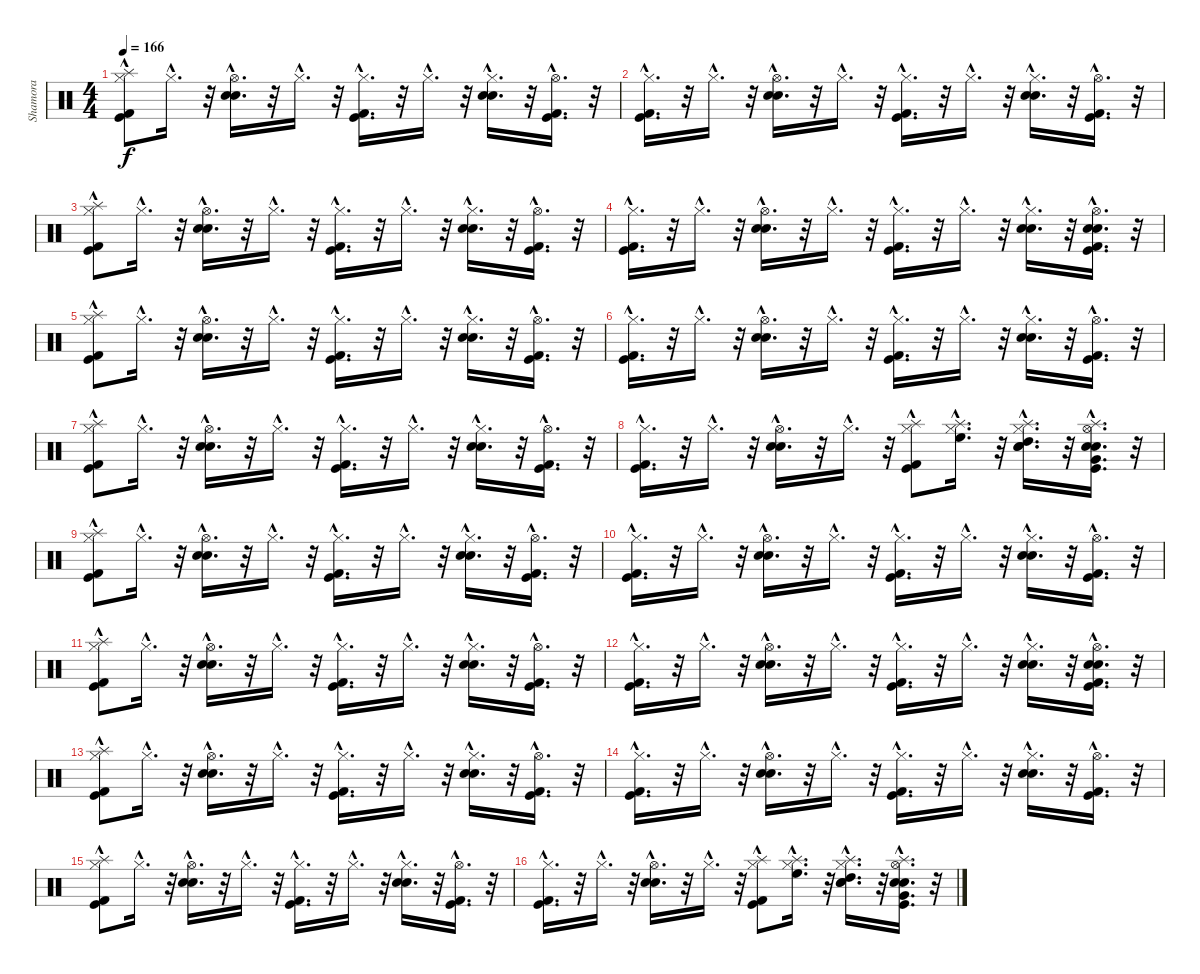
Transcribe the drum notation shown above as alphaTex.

\track ("Shamora" "Shamora") {instrument percussion}
\staff {score}
\articulation defaults
\ts (4 4)
\tempo 166
\clef neutral
\ks c
("Hi-Hat (closed)"{hac} "Kick (hit) 2"{hac} "Kick (hit)"{hac} "Splash (hit)").8{dy f} "Hi-Hat (closed)"{hac}.16{d} r.32 ("Hi-Hat (open)"{hac} "Snare (hit) 2"{hac} "Electric Snare (hit)"{hac}).16{d} r.32 "Hi-Hat (closed)"{hac}.16{d} r.32 ("Hi-Hat (closed)"{hac} "Kick (hit)"{hac} "Kick (hit) 2"{hac}).16{d} r.32 "Hi-Hat (closed)"{hac}.16{d} r.32 ("Hi-Hat (closed)"{hac} "Snare (hit) 2"{hac} "Electric Snare (hit)"{hac}).16{d} r.32 ("Hi-Hat (open)"{hac} "Kick (hit)"{hac} "Kick (hit) 2"{hac}).16{d} r.32 |
("Hi-Hat (closed)"{hac} "Kick (hit) 2"{hac} "Kick (hit)"{hac}).16{d} r.32 "Hi-Hat (closed)"{hac}.16{d} r.32 ("Hi-Hat (open)"{hac} "Snare (hit) 2"{hac} "Electric Snare (hit)"{hac}).16{d} r.32 "Hi-Hat (closed)"{hac}.16{d} r.32 ("Hi-Hat (closed)"{hac} "Kick (hit)"{hac} "Kick (hit) 2"{hac}).16{d} r.32 "Hi-Hat (closed)"{hac}.16{d} r.32 ("Hi-Hat (closed)"{hac} "Snare (hit) 2"{hac} "Electric Snare (hit)"{hac}).16{d} r.32 ("Hi-Hat (open)"{hac} "Kick (hit)"{hac} "Kick (hit) 2"{hac}).16{d} r.32 |
("Splash (hit)" "Hi-Hat (closed)"{hac} "Kick (hit) 2"{hac} "Kick (hit)"{hac}).8 "Hi-Hat (closed)"{hac}.16{d} r.32 ("Hi-Hat (open)"{hac} "Snare (hit) 2"{hac} "Electric Snare (hit)"{hac}).16{d} r.32 "Hi-Hat (closed)"{hac}.16{d} r.32 ("Hi-Hat (closed)"{hac} "Kick (hit)"{hac} "Kick (hit) 2"{hac}).16{d} r.32 "Hi-Hat (closed)"{hac}.16{d} r.32 ("Hi-Hat (closed)"{hac} "Snare (hit) 2"{hac} "Electric Snare (hit)"{hac}).16{d} r.32 ("Hi-Hat (open)"{hac} "Kick (hit)"{hac} "Kick (hit) 2"{hac}).16{d} r.32 |
("Hi-Hat (closed)"{hac} "Kick (hit) 2"{hac} "Kick (hit)"{hac}).16{d} r.32 "Hi-Hat (closed)"{hac}.16{d} r.32 ("Hi-Hat (open)"{hac} "Snare (hit) 2"{hac} "Electric Snare (hit)"{hac}).16{d} r.32 "Hi-Hat (closed)"{hac}.16{d} r.32 ("Hi-Hat (closed)"{hac} "Kick (hit)"{hac} "Kick (hit) 2"{hac}).16{d} r.32 "Hi-Hat (closed)"{hac}.16{d} r.32 ("Hi-Hat (closed)"{hac} "Snare (hit) 2"{hac} "Electric Snare (hit)"{hac}).16{d} r.32 ("Snare (hit) 2"{hac} "Electric Snare (hit)"{hac} "Hi-Hat (open)"{hac} "Kick (hit)"{hac} "Kick (hit) 2"{hac}).16{d} r.32 |
("Hi-Hat (closed)"{hac} "Kick (hit) 2"{hac} "Kick (hit)"{hac} "Splash (hit)").8 "Hi-Hat (closed)"{hac}.16{d} r.32 ("Hi-Hat (open)"{hac} "Snare (hit) 2"{hac} "Electric Snare (hit)"{hac}).16{d} r.32 "Hi-Hat (closed)"{hac}.16{d} r.32 ("Hi-Hat (closed)"{hac} "Kick (hit)"{hac} "Kick (hit) 2"{hac}).16{d} r.32 "Hi-Hat (closed)"{hac}.16{d} r.32 ("Hi-Hat (closed)"{hac} "Snare (hit) 2"{hac} "Electric Snare (hit)"{hac}).16{d} r.32 ("Hi-Hat (open)"{hac} "Kick (hit)"{hac} "Kick (hit) 2"{hac}).16{d} r.32 |
("Hi-Hat (closed)"{hac} "Kick (hit) 2"{hac} "Kick (hit)"{hac}).16{d} r.32 "Hi-Hat (closed)"{hac}.16{d} r.32 ("Hi-Hat (open)"{hac} "Snare (hit) 2"{hac} "Electric Snare (hit)"{hac}).16{d} r.32 "Hi-Hat (closed)"{hac}.16{d} r.32 ("Hi-Hat (closed)"{hac} "Kick (hit)"{hac} "Kick (hit) 2"{hac}).16{d} r.32 "Hi-Hat (closed)"{hac}.16{d} r.32 ("Hi-Hat (closed)"{hac} "Snare (hit) 2"{hac} "Electric Snare (hit)"{hac}).16{d} r.32 ("Hi-Hat (open)"{hac} "Kick (hit)"{hac} "Kick (hit) 2"{hac}).16{d} r.32 |
("Splash (hit)" "Hi-Hat (closed)"{hac} "Kick (hit) 2"{hac} "Kick (hit)"{hac}).8 "Hi-Hat (closed)"{hac}.16{d} r.32 ("Hi-Hat (open)"{hac} "Snare (hit) 2"{hac} "Electric Snare (hit)"{hac}).16{d} r.32 "Hi-Hat (closed)"{hac}.16{d} r.32 ("Hi-Hat (closed)"{hac} "Kick (hit)"{hac} "Kick (hit) 2"{hac}).16{d} r.32 "Hi-Hat (closed)"{hac}.16{d} r.32 ("Hi-Hat (closed)"{hac} "Snare (hit) 2"{hac} "Electric Snare (hit)"{hac}).16{d} r.32 ("Hi-Hat (open)"{hac} "Kick (hit)"{hac} "Kick (hit) 2"{hac}).16{d} r.32 |
("Hi-Hat (closed)"{hac} "Kick (hit) 2"{hac} "Kick (hit)"{hac}).16{d} r.32 "Hi-Hat (closed)"{hac}.16{d} r.32 ("Hi-Hat (open)"{hac} "Snare (hit) 2"{hac} "Electric Snare (hit)"{hac}).16{d} r.32 "Hi-Hat (closed)"{hac}.16{d} r.32 ("Splash (hit)"{hac} "Hi-Hat (closed)"{hac} "Kick (hit)"{hac} "Kick (hit) 2"{hac}).8 ("High Floor Tom (hit)"{hac} "Splash (hit)"{hac} "Hi-Hat (closed)"{hac}).16{d} r.32 ("High Tom (hit)"{hac} "Splash (hit)"{hac} "Hi-Hat (closed)"{hac} "Snare (hit) 2"{hac} "Electric Snare (hit)"{hac}).16{d} r.32 ("Very Low Tom (hit)"{hac} "Splash (hit)"{hac} "Snare (hit) 2"{hac} "Electric Snare (hit)"{hac} "Hi-Hat (open)"{hac} "Kick (hit)"{hac}).16{d} r.32 |
("Hi-Hat (closed)"{hac} "Kick (hit) 2"{hac} "Kick (hit)"{hac} "Splash (hit)").8 "Hi-Hat (closed)"{hac}.16{d} r.32 ("Hi-Hat (open)"{hac} "Snare (hit) 2"{hac} "Electric Snare (hit)"{hac}).16{d} r.32 "Hi-Hat (closed)"{hac}.16{d} r.32 ("Hi-Hat (closed)"{hac} "Kick (hit)"{hac} "Kick (hit) 2"{hac}).16{d} r.32 "Hi-Hat (closed)"{hac}.16{d} r.32 ("Hi-Hat (closed)"{hac} "Snare (hit) 2"{hac} "Electric Snare (hit)"{hac}).16{d} r.32 ("Hi-Hat (open)"{hac} "Kick (hit)"{hac} "Kick (hit) 2"{hac}).16{d} r.32 |
("Hi-Hat (closed)"{hac} "Kick (hit) 2"{hac} "Kick (hit)"{hac}).16{d} r.32 "Hi-Hat (closed)"{hac}.16{d} r.32 ("Hi-Hat (open)"{hac} "Snare (hit) 2"{hac} "Electric Snare (hit)"{hac}).16{d} r.32 "Hi-Hat (closed)"{hac}.16{d} r.32 ("Hi-Hat (closed)"{hac} "Kick (hit)"{hac} "Kick (hit) 2"{hac}).16{d} r.32 "Hi-Hat (closed)"{hac}.16{d} r.32 ("Hi-Hat (closed)"{hac} "Snare (hit) 2"{hac} "Electric Snare (hit)"{hac}).16{d} r.32 ("Hi-Hat (open)"{hac} "Kick (hit)"{hac} "Kick (hit) 2"{hac}).16{d} r.32 |
("Splash (hit)" "Hi-Hat (closed)"{hac} "Kick (hit) 2"{hac} "Kick (hit)"{hac}).8 "Hi-Hat (closed)"{hac}.16{d} r.32 ("Hi-Hat (open)"{hac} "Snare (hit) 2"{hac} "Electric Snare (hit)"{hac}).16{d} r.32 "Hi-Hat (closed)"{hac}.16{d} r.32 ("Hi-Hat (closed)"{hac} "Kick (hit)"{hac} "Kick (hit) 2"{hac}).16{d} r.32 "Hi-Hat (closed)"{hac}.16{d} r.32 ("Hi-Hat (closed)"{hac} "Snare (hit) 2"{hac} "Electric Snare (hit)"{hac}).16{d} r.32 ("Hi-Hat (open)"{hac} "Kick (hit)"{hac} "Kick (hit) 2"{hac}).16{d} r.32 |
("Hi-Hat (closed)"{hac} "Kick (hit) 2"{hac} "Kick (hit)"{hac}).16{d} r.32 "Hi-Hat (closed)"{hac}.16{d} r.32 ("Hi-Hat (open)"{hac} "Snare (hit) 2"{hac} "Electric Snare (hit)"{hac}).16{d} r.32 "Hi-Hat (closed)"{hac}.16{d} r.32 ("Hi-Hat (closed)"{hac} "Kick (hit)"{hac} "Kick (hit) 2"{hac}).16{d} r.32 "Hi-Hat (closed)"{hac}.16{d} r.32 ("Hi-Hat (closed)"{hac} "Snare (hit) 2"{hac} "Electric Snare (hit)"{hac}).16{d} r.32 ("Snare (hit) 2"{hac} "Electric Snare (hit)"{hac} "Hi-Hat (open)"{hac} "Kick (hit)"{hac} "Kick (hit) 2"{hac}).16{d} r.32 |
("Hi-Hat (closed)"{hac} "Kick (hit) 2"{hac} "Kick (hit)"{hac} "Splash (hit)").8 "Hi-Hat (closed)"{hac}.16{d} r.32 ("Hi-Hat (open)"{hac} "Snare (hit) 2"{hac} "Electric Snare (hit)"{hac}).16{d} r.32 "Hi-Hat (closed)"{hac}.16{d} r.32 ("Hi-Hat (closed)"{hac} "Kick (hit)"{hac} "Kick (hit) 2"{hac}).16{d} r.32 "Hi-Hat (closed)"{hac}.16{d} r.32 ("Hi-Hat (closed)"{hac} "Snare (hit) 2"{hac} "Electric Snare (hit)"{hac}).16{d} r.32 ("Hi-Hat (open)"{hac} "Kick (hit)"{hac} "Kick (hit) 2"{hac}).16{d} r.32 |
("Hi-Hat (closed)"{hac} "Kick (hit) 2"{hac} "Kick (hit)"{hac}).16{d} r.32 "Hi-Hat (closed)"{hac}.16{d} r.32 ("Hi-Hat (open)"{hac} "Snare (hit) 2"{hac} "Electric Snare (hit)"{hac}).16{d} r.32 "Hi-Hat (closed)"{hac}.16{d} r.32 ("Hi-Hat (closed)"{hac} "Kick (hit)"{hac} "Kick (hit) 2"{hac}).16{d} r.32 "Hi-Hat (closed)"{hac}.16{d} r.32 ("Hi-Hat (closed)"{hac} "Snare (hit) 2"{hac} "Electric Snare (hit)"{hac}).16{d} r.32 ("Hi-Hat (open)"{hac} "Kick (hit)"{hac} "Kick (hit) 2"{hac}).16{d} r.32 |
("Splash (hit)" "Hi-Hat (closed)"{hac} "Kick (hit) 2"{hac} "Kick (hit)"{hac}).8 "Hi-Hat (closed)"{hac}.16{d} r.32 ("Hi-Hat (open)"{hac} "Snare (hit) 2"{hac} "Electric Snare (hit)"{hac}).16{d} r.32 "Hi-Hat (closed)"{hac}.16{d} r.32 ("Hi-Hat (closed)"{hac} "Kick (hit)"{hac} "Kick (hit) 2"{hac}).16{d} r.32 "Hi-Hat (closed)"{hac}.16{d} r.32 ("Hi-Hat (closed)"{hac} "Snare (hit) 2"{hac} "Electric Snare (hit)"{hac}).16{d} r.32 ("Hi-Hat (open)"{hac} "Kick (hit)"{hac} "Kick (hit) 2"{hac}).16{d} r.32 |
("Hi-Hat (closed)"{hac} "Kick (hit) 2"{hac} "Kick (hit)"{hac}).16{d} r.32 "Hi-Hat (closed)"{hac}.16{d} r.32 ("Hi-Hat (open)"{hac} "Snare (hit) 2"{hac} "Electric Snare (hit)"{hac}).16{d} r.32 "Hi-Hat (closed)"{hac}.16{d} r.32 ("Splash (hit)"{hac} "Hi-Hat (closed)"{hac} "Kick (hit)"{hac} "Kick (hit) 2"{hac}).8 ("High Floor Tom (hit)"{hac} "Splash (hit)"{hac} "Hi-Hat (closed)"{hac}).16{d} r.32 ("High Tom (hit)"{hac} "Splash (hit)"{hac} "Hi-Hat (closed)"{hac} "Snare (hit) 2"{hac} "Electric Snare (hit)"{hac}).16{d} r.32 ("Very Low Tom (hit)"{hac} "Splash (hit)"{hac} "Snare (hit) 2"{hac} "Electric Snare (hit)"{hac} "Hi-Hat (open)"{hac} "Kick (hit)"{hac}).16{d} r.32
